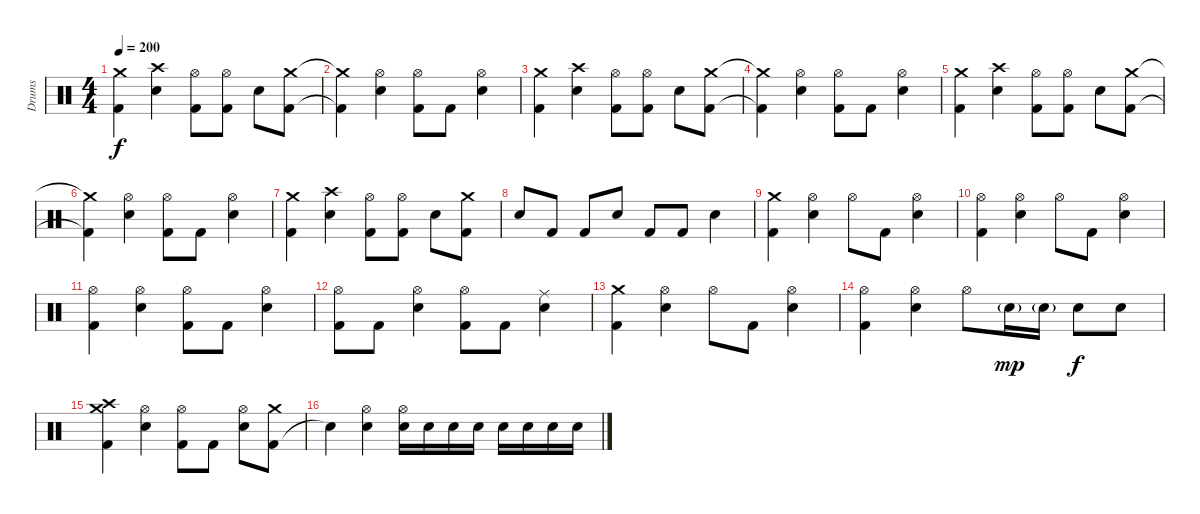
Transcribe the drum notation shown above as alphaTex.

\track ("Drums" "Drums") {instrument percussion}
\staff {score}
\articulation defaults
\ts (4 4)
\tempo 200
\clef neutral
\ks c
("Crash medium (hit)" "Kick (hit) 2").4{dy f} ("Crash high (hit)" "Electric Snare (hit)").4 ("Kick (hit) 2" "Hi-Hat (open)").8 ("Kick (hit) 2" "Hi-Hat (open)").8 "Electric Snare (hit)".8 ("Crash medium (hit)" "Kick (hit) 2").8 |
("Crash medium (hit)"{t} "Kick (hit) 2"{t}).4 ("Hi-Hat (open)" "Electric Snare (hit)").4 ("Kick (hit) 2" "Hi-Hat (open)").8 "Kick (hit) 2".8 ("Electric Snare (hit)" "Hi-Hat (open)").4 |
("Crash medium (hit)" "Kick (hit) 2").4 ("Crash high (hit)" "Electric Snare (hit)").4 ("Kick (hit) 2" "Hi-Hat (open)").8 ("Kick (hit) 2" "Hi-Hat (open)").8 "Electric Snare (hit)".8 ("Crash medium (hit)" "Kick (hit) 2").8 |
("Crash medium (hit)"{t} "Kick (hit) 2"{t}).4 ("Hi-Hat (open)" "Electric Snare (hit)").4 ("Kick (hit) 2" "Hi-Hat (open)").8 "Kick (hit) 2".8 ("Electric Snare (hit)" "Hi-Hat (open)").4 |
("Crash medium (hit)" "Kick (hit) 2").4 ("Crash high (hit)" "Electric Snare (hit)").4 ("Kick (hit) 2" "Hi-Hat (open)").8 ("Kick (hit) 2" "Hi-Hat (open)").8 "Electric Snare (hit)".8 ("Crash medium (hit)" "Kick (hit) 2").8 |
("Crash medium (hit)"{t} "Kick (hit) 2"{t}).4 ("Hi-Hat (open)" "Electric Snare (hit)").4 ("Kick (hit) 2" "Hi-Hat (open)").8 "Kick (hit) 2".8 ("Electric Snare (hit)" "Hi-Hat (open)").4 |
("Crash medium (hit)" "Kick (hit) 2").4 ("Crash high (hit)" "Electric Snare (hit)").4 ("Kick (hit) 2" "Hi-Hat (open)").8 ("Kick (hit) 2" "Hi-Hat (open)").8 "Electric Snare (hit)".8 ("Crash medium (hit)" "Kick (hit) 2").8 |
"Electric Snare (hit)".8 "Kick (hit) 2".8 "Kick (hit) 2".8 "Electric Snare (hit)".8 "Kick (hit) 2".8 "Kick (hit) 2".8 "Electric Snare (hit)".4 |
("Crash medium (hit)" "Kick (hit) 2").4 ("Hi-Hat (open)" "Electric Snare (hit)").4 "Hi-Hat (open)".8 "Kick (hit) 2".8 ("Electric Snare (hit)" "Hi-Hat (open)").4 |
("Hi-Hat (open)" "Kick (hit) 2").4 ("Hi-Hat (open)" "Electric Snare (hit)").4 "Hi-Hat (open)".8 "Kick (hit) 2".8 ("Electric Snare (hit)" "Hi-Hat (open)").4 |
("Hi-Hat (open)" "Kick (hit) 2").4 ("Hi-Hat (open)" "Electric Snare (hit)").4 ("Hi-Hat (open)" "Kick (hit) 2").8 "Kick (hit) 2".8 ("Hi-Hat (open)" "Electric Snare (hit)").4 |
("Kick (hit) 2" "Hi-Hat (open)").8 "Kick (hit) 2".8 ("Electric Snare (hit)" "Hi-Hat (open)").4 ("Kick (hit) 2" "Hi-Hat (open)").8 "Kick (hit) 2".8 ("Electric Snare (hit)" "Ride (middle)").4 |
("Crash medium (hit)" "Kick (hit) 2").4 ("Hi-Hat (open)" "Electric Snare (hit)").4 "Hi-Hat (open)".8 "Kick (hit) 2".8 ("Electric Snare (hit)" "Hi-Hat (open)").4 |
("Hi-Hat (open)" "Kick (hit) 2").4 ("Hi-Hat (open)" "Electric Snare (hit)").4 "Hi-Hat (open)".8 "Electric Snare (hit)"{g}.16{dy mp} "Electric Snare (hit)"{g}.16 "Electric Snare (hit)".8{dy f} "Electric Snare (hit)".8 |
("Crash medium (hit)" "Kick (hit) 2" "Crash high (hit)").4 ("Electric Snare (hit)" "Hi-Hat (open)").4 ("Kick (hit) 2" "Hi-Hat (open)").8 "Kick (hit) 2".8 ("Electric Snare (hit)" "Hi-Hat (open)").8 ("Kick (hit) 2" "Crash medium (hit)").8 |
"Snare (hit)"{t}.4 ("Electric Snare (hit)" "Hi-Hat (open)").4 ("Electric Snare (hit)" "Hi-Hat (open)").16 "Electric Snare (hit)".16 "Electric Snare (hit)".16 "Electric Snare (hit)".16 "Electric Snare (hit)".16 "Electric Snare (hit)".16 "Electric Snare (hit)".16 "Electric Snare (hit)".16
